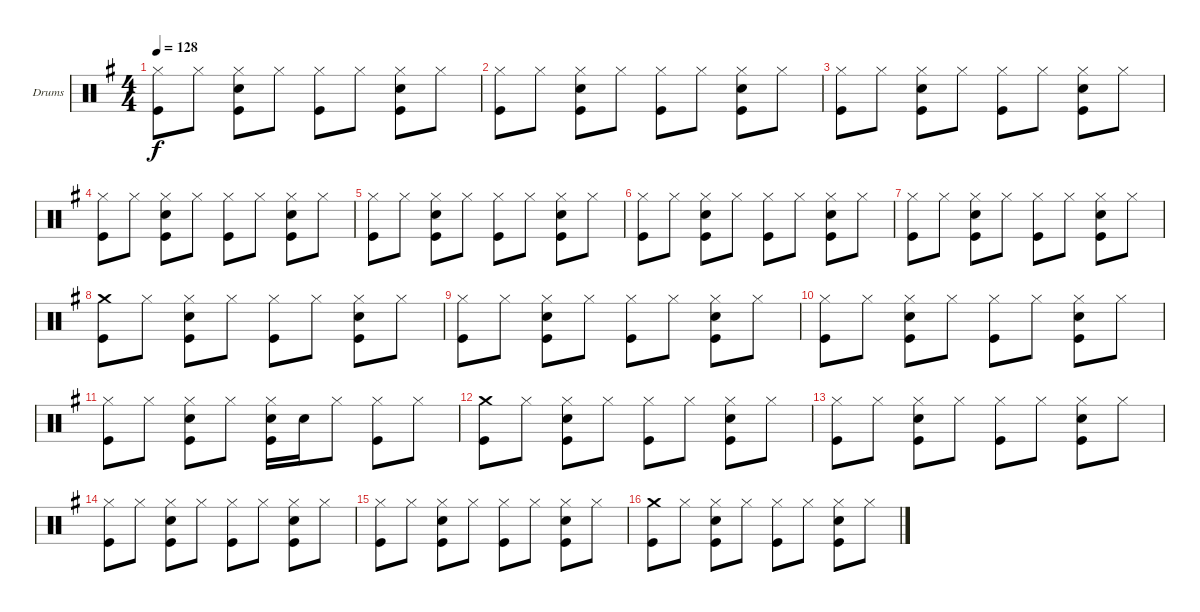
\bracketExtendMode groupsimilarinstruments
\firstSystemTrackNameOrientation horizontal
\otherSystemsTrackNameOrientation horizontal
\track ("Drumkit" "Drums") {multiBarRest instrument percussion}
\staff {score}
\articulation defaults
\ts (4 4)
\tempo 128
\clef neutral
\ks eminor
("Hi-Hat (closed)" "Kick (hit)").8{dy f} "Hi-Hat (closed)".8 ("Hi-Hat (closed)" "Snare (hit) 2" "Kick (hit)").8 "Hi-Hat (closed)".8 ("Hi-Hat (closed)" "Kick (hit)").8 "Hi-Hat (closed)".8 ("Hi-Hat (closed)" "Snare (hit) 2" "Kick (hit)").8 "Hi-Hat (closed)".8 |
("Hi-Hat (closed)" "Kick (hit)").8 "Hi-Hat (closed)".8 ("Hi-Hat (closed)" "Snare (hit) 2" "Kick (hit)").8 "Hi-Hat (closed)".8 ("Hi-Hat (closed)" "Kick (hit)").8 "Hi-Hat (closed)".8 ("Hi-Hat (closed)" "Snare (hit) 2" "Kick (hit)").8 "Hi-Hat (closed)".8 |
("Hi-Hat (closed)" "Kick (hit)").8 "Hi-Hat (closed)".8 ("Hi-Hat (closed)" "Snare (hit) 2" "Kick (hit)").8 "Hi-Hat (closed)".8 ("Hi-Hat (closed)" "Kick (hit)").8 "Hi-Hat (closed)".8 ("Hi-Hat (closed)" "Snare (hit) 2" "Kick (hit)").8 "Hi-Hat (closed)".8 |
("Hi-Hat (closed)" "Kick (hit)").8 "Hi-Hat (closed)".8 ("Hi-Hat (closed)" "Snare (hit) 2" "Kick (hit)").8 "Hi-Hat (closed)".8 ("Hi-Hat (closed)" "Kick (hit)").8 "Hi-Hat (closed)".8 ("Hi-Hat (closed)" "Snare (hit) 2" "Kick (hit)").8 "Hi-Hat (closed)".8 |
("Hi-Hat (closed)" "Kick (hit)").8 "Hi-Hat (closed)".8 ("Hi-Hat (closed)" "Snare (hit) 2" "Kick (hit)").8 "Hi-Hat (closed)".8 ("Hi-Hat (closed)" "Kick (hit)").8 "Hi-Hat (closed)".8 ("Hi-Hat (closed)" "Snare (hit) 2" "Kick (hit)").8 "Hi-Hat (closed)".8 |
("Hi-Hat (closed)" "Kick (hit)").8 "Hi-Hat (closed)".8 ("Hi-Hat (closed)" "Snare (hit) 2" "Kick (hit)").8 "Hi-Hat (closed)".8 ("Hi-Hat (closed)" "Kick (hit)").8 "Hi-Hat (closed)".8 ("Hi-Hat (closed)" "Snare (hit) 2" "Kick (hit)").8 "Hi-Hat (closed)".8 |
("Hi-Hat (closed)" "Kick (hit)").8 "Hi-Hat (closed)".8 ("Hi-Hat (closed)" "Snare (hit) 2" "Kick (hit)").8 "Hi-Hat (closed)".8 ("Hi-Hat (closed)" "Kick (hit)").8 "Hi-Hat (closed)".8 ("Hi-Hat (closed)" "Snare (hit) 2" "Kick (hit)").8 "Hi-Hat (closed)".8 |
("Crash medium (hit)" "Kick (hit)").8 "Hi-Hat (closed)".8 ("Hi-Hat (closed)" "Snare (hit) 2" "Kick (hit)").8 "Hi-Hat (closed)".8 ("Hi-Hat (closed)" "Kick (hit)").8 "Hi-Hat (closed)".8 ("Hi-Hat (closed)" "Snare (hit) 2" "Kick (hit)").8 "Hi-Hat (closed)".8 |
("Hi-Hat (closed)" "Kick (hit)").8 "Hi-Hat (closed)".8 ("Hi-Hat (closed)" "Snare (hit) 2" "Kick (hit)").8 "Hi-Hat (closed)".8 ("Hi-Hat (closed)" "Kick (hit)").8 "Hi-Hat (closed)".8 ("Hi-Hat (closed)" "Snare (hit) 2" "Kick (hit)").8 "Hi-Hat (closed)".8 |
("Hi-Hat (closed)" "Kick (hit)").8 "Hi-Hat (closed)".8 ("Hi-Hat (closed)" "Snare (hit) 2" "Kick (hit)").8 "Hi-Hat (closed)".8 ("Hi-Hat (closed)" "Kick (hit)").8 "Hi-Hat (closed)".8 ("Hi-Hat (closed)" "Snare (hit) 2" "Kick (hit)").8 "Hi-Hat (closed)".8 |
("Hi-Hat (closed)" "Kick (hit)").8 "Hi-Hat (closed)".8 ("Hi-Hat (closed)" "Snare (hit) 2" "Kick (hit)").8 "Hi-Hat (closed)".8 ("Hi-Hat (closed)" "Snare (hit) 2" "Kick (hit)").16 "Snare (hit) 2".16 "Hi-Hat (closed)".8 ("Hi-Hat (closed)" "Kick (hit)").8 "Hi-Hat (closed)".8 |
("Crash medium (hit)" "Kick (hit)").8 "Hi-Hat (closed)".8 ("Hi-Hat (closed)" "Snare (hit) 2" "Kick (hit)").8 "Hi-Hat (closed)".8 ("Hi-Hat (closed)" "Kick (hit)").8 "Hi-Hat (closed)".8 ("Hi-Hat (closed)" "Snare (hit) 2" "Kick (hit)").8 "Hi-Hat (closed)".8 |
("Hi-Hat (closed)" "Kick (hit)").8 "Hi-Hat (closed)".8 ("Hi-Hat (closed)" "Snare (hit) 2" "Kick (hit)").8 "Hi-Hat (closed)".8 ("Hi-Hat (closed)" "Kick (hit)").8 "Hi-Hat (closed)".8 ("Hi-Hat (closed)" "Snare (hit) 2" "Kick (hit)").8 "Hi-Hat (closed)".8 |
("Hi-Hat (closed)" "Kick (hit)").8 "Hi-Hat (closed)".8 ("Hi-Hat (closed)" "Snare (hit) 2" "Kick (hit)").8 "Hi-Hat (closed)".8 ("Hi-Hat (closed)" "Kick (hit)").8 "Hi-Hat (closed)".8 ("Hi-Hat (closed)" "Snare (hit) 2" "Kick (hit)").8 "Hi-Hat (closed)".8 |
("Hi-Hat (closed)" "Kick (hit)").8 "Hi-Hat (closed)".8 ("Hi-Hat (closed)" "Snare (hit) 2" "Kick (hit)").8 "Hi-Hat (closed)".8 ("Hi-Hat (closed)" "Kick (hit)").8 "Hi-Hat (closed)".8 ("Hi-Hat (closed)" "Snare (hit) 2" "Kick (hit)").8 "Hi-Hat (closed)".8 |
("Crash medium (hit)" "Kick (hit)").8 "Hi-Hat (closed)".8 ("Hi-Hat (closed)" "Snare (hit) 2" "Kick (hit)").8 "Hi-Hat (closed)".8 ("Hi-Hat (closed)" "Kick (hit)").8 "Hi-Hat (closed)".8 ("Hi-Hat (closed)" "Snare (hit) 2" "Kick (hit)").8 "Hi-Hat (closed)".8
